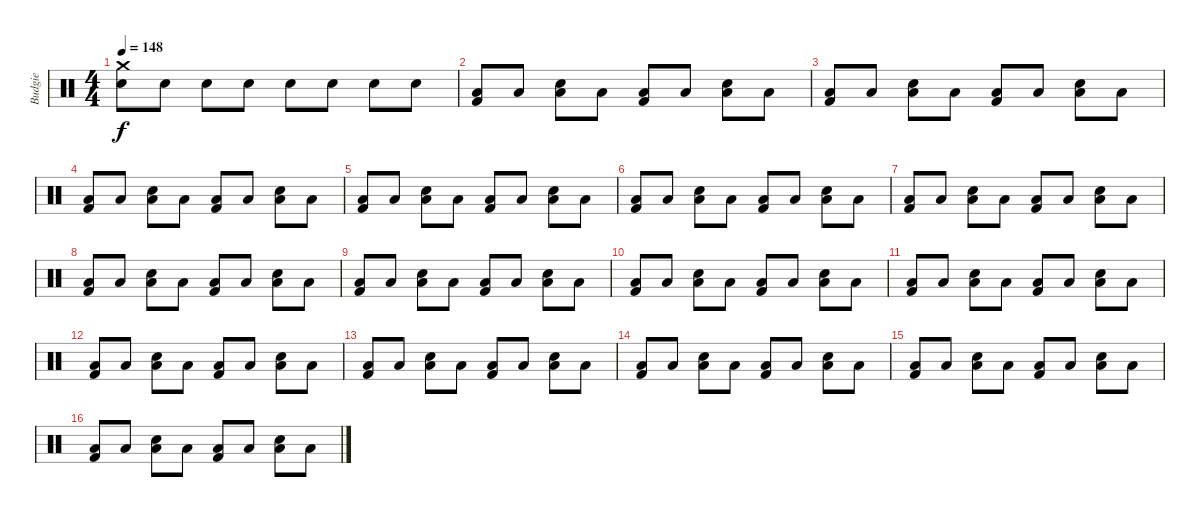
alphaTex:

\track ("Budgie" "Budgie") {instrument percussion}
\staff {score}
\articulation defaults
\ts (4 4)
\tempo 148
\clef neutral
\ks c
("Crash medium (hit)" "Snare (hit) 2").8{dy f} "Snare (hit) 2".8 "Snare (hit) 2".8 "Snare (hit) 2".8 "Snare (hit) 2".8 "Snare (hit) 2".8 "Snare (hit) 2".8 "Snare (hit) 2".8 |
("Low Floor Tom (hit)" "Kick (hit) 2").8 "Low Floor Tom (hit)".8 ("Snare (hit) 2" "Low Floor Tom (hit)").8 "Low Floor Tom (hit)".8 ("Low Floor Tom (hit)" "Kick (hit) 2").8 "Low Floor Tom (hit)".8 ("Snare (hit) 2" "Low Floor Tom (hit)").8 "Low Floor Tom (hit)".8 |
("Low Floor Tom (hit)" "Kick (hit) 2").8 "Low Floor Tom (hit)".8 ("Snare (hit) 2" "Low Floor Tom (hit)").8 "Low Floor Tom (hit)".8 ("Low Floor Tom (hit)" "Kick (hit) 2").8 "Low Floor Tom (hit)".8 ("Snare (hit) 2" "Low Floor Tom (hit)").8 "Low Floor Tom (hit)".8 |
("Low Floor Tom (hit)" "Kick (hit) 2").8 "Low Floor Tom (hit)".8 ("Snare (hit) 2" "Low Floor Tom (hit)").8 "Low Floor Tom (hit)".8 ("Low Floor Tom (hit)" "Kick (hit) 2").8 "Low Floor Tom (hit)".8 ("Snare (hit) 2" "Low Floor Tom (hit)").8 "Low Floor Tom (hit)".8 |
("Low Floor Tom (hit)" "Kick (hit) 2").8 "Low Floor Tom (hit)".8 ("Snare (hit) 2" "Low Floor Tom (hit)").8 "Low Floor Tom (hit)".8 ("Low Floor Tom (hit)" "Kick (hit) 2").8 "Low Floor Tom (hit)".8 ("Snare (hit) 2" "Low Floor Tom (hit)").8 "Low Floor Tom (hit)".8 |
("Low Floor Tom (hit)" "Kick (hit) 2").8 "Low Floor Tom (hit)".8 ("Snare (hit) 2" "Low Floor Tom (hit)").8 "Low Floor Tom (hit)".8 ("Low Floor Tom (hit)" "Kick (hit) 2").8 "Low Floor Tom (hit)".8 ("Snare (hit) 2" "Low Floor Tom (hit)").8 "Low Floor Tom (hit)".8 |
("Low Floor Tom (hit)" "Kick (hit) 2").8 "Low Floor Tom (hit)".8 ("Snare (hit) 2" "Low Floor Tom (hit)").8 "Low Floor Tom (hit)".8 ("Low Floor Tom (hit)" "Kick (hit) 2").8 "Low Floor Tom (hit)".8 ("Snare (hit) 2" "Low Floor Tom (hit)").8 "Low Floor Tom (hit)".8 |
("Low Floor Tom (hit)" "Kick (hit) 2").8 "Low Floor Tom (hit)".8 ("Snare (hit) 2" "Low Floor Tom (hit)").8 "Low Floor Tom (hit)".8 ("Low Floor Tom (hit)" "Kick (hit) 2").8 "Low Floor Tom (hit)".8 ("Snare (hit) 2" "Low Floor Tom (hit)").8 "Low Floor Tom (hit)".8 |
("Low Floor Tom (hit)" "Kick (hit) 2").8 "Low Floor Tom (hit)".8 ("Snare (hit) 2" "Low Floor Tom (hit)").8 "Low Floor Tom (hit)".8 ("Low Floor Tom (hit)" "Kick (hit) 2").8 "Low Floor Tom (hit)".8 ("Snare (hit) 2" "Low Floor Tom (hit)").8 "Low Floor Tom (hit)".8 |
("Low Floor Tom (hit)" "Kick (hit) 2").8 "Low Floor Tom (hit)".8 ("Snare (hit) 2" "Low Floor Tom (hit)").8 "Low Floor Tom (hit)".8 ("Low Floor Tom (hit)" "Kick (hit) 2").8 "Low Floor Tom (hit)".8 ("Snare (hit) 2" "Low Floor Tom (hit)").8 "Low Floor Tom (hit)".8 |
("Low Floor Tom (hit)" "Kick (hit) 2").8 "Low Floor Tom (hit)".8 ("Snare (hit) 2" "Low Floor Tom (hit)").8 "Low Floor Tom (hit)".8 ("Low Floor Tom (hit)" "Kick (hit) 2").8 "Low Floor Tom (hit)".8 ("Snare (hit) 2" "Low Floor Tom (hit)").8 "Low Floor Tom (hit)".8 |
("Low Floor Tom (hit)" "Kick (hit) 2").8 "Low Floor Tom (hit)".8 ("Snare (hit) 2" "Low Floor Tom (hit)").8 "Low Floor Tom (hit)".8 ("Low Floor Tom (hit)" "Kick (hit) 2").8 "Low Floor Tom (hit)".8 ("Snare (hit) 2" "Low Floor Tom (hit)").8 "Low Floor Tom (hit)".8 |
("Low Floor Tom (hit)" "Kick (hit) 2").8 "Low Floor Tom (hit)".8 ("Snare (hit) 2" "Low Floor Tom (hit)").8 "Low Floor Tom (hit)".8 ("Low Floor Tom (hit)" "Kick (hit) 2").8 "Low Floor Tom (hit)".8 ("Snare (hit) 2" "Low Floor Tom (hit)").8 "Low Floor Tom (hit)".8 |
("Low Floor Tom (hit)" "Kick (hit) 2").8 "Low Floor Tom (hit)".8 ("Snare (hit) 2" "Low Floor Tom (hit)").8 "Low Floor Tom (hit)".8 ("Low Floor Tom (hit)" "Kick (hit) 2").8 "Low Floor Tom (hit)".8 ("Snare (hit) 2" "Low Floor Tom (hit)").8 "Low Floor Tom (hit)".8 |
("Low Floor Tom (hit)" "Kick (hit) 2").8 "Low Floor Tom (hit)".8 ("Snare (hit) 2" "Low Floor Tom (hit)").8 "Low Floor Tom (hit)".8 ("Low Floor Tom (hit)" "Kick (hit) 2").8 "Low Floor Tom (hit)".8 ("Snare (hit) 2" "Low Floor Tom (hit)").8 "Low Floor Tom (hit)".8 |
("Low Floor Tom (hit)" "Kick (hit) 2").8 "Low Floor Tom (hit)".8 ("Snare (hit) 2" "Low Floor Tom (hit)").8 "Low Floor Tom (hit)".8 ("Low Floor Tom (hit)" "Kick (hit) 2").8 "Low Floor Tom (hit)".8 ("Snare (hit) 2" "Low Floor Tom (hit)").8 "Low Floor Tom (hit)".8
